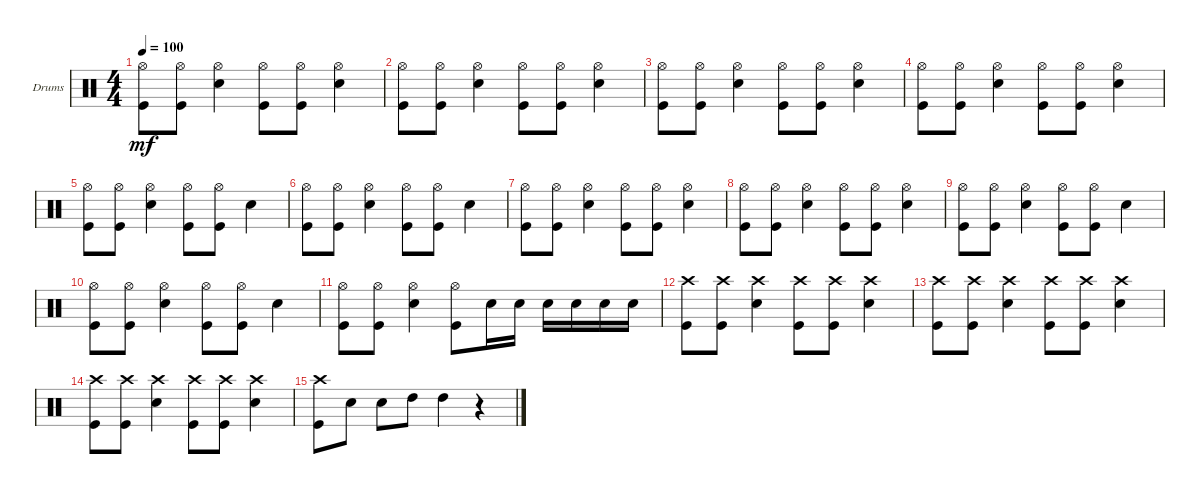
\defaultSystemsLayout 4
\bracketExtendMode groupsimilarinstruments
\firstSystemTrackNameOrientation horizontal
\otherSystemsTrackNameOrientation horizontal
\track ("Drumkit" "Drums") {instrument percussion}
\staff {score}
\articulation defaults
\ts (4 4)
\tempo 100
\clef neutral
\ks c
("Kick (hit)" "Hi-Hat (open)").8{dy mf} ("Kick (hit)" "Hi-Hat (open)").8 ("Snare (hit) 2" "Hi-Hat (open)").4 ("Kick (hit)" "Hi-Hat (open)").8 ("Kick (hit)" "Hi-Hat (open)").8 ("Snare (hit) 2" "Hi-Hat (open)").4 |
("Kick (hit)" "Hi-Hat (open)").8 ("Kick (hit)" "Hi-Hat (open)").8 ("Snare (hit) 2" "Hi-Hat (open)").4 ("Kick (hit)" "Hi-Hat (open)").8 ("Kick (hit)" "Hi-Hat (open)").8 ("Snare (hit) 2" "Hi-Hat (open)").4 |
("Kick (hit)" "Hi-Hat (open)").8 ("Kick (hit)" "Hi-Hat (open)").8 ("Snare (hit) 2" "Hi-Hat (open)").4 ("Kick (hit)" "Hi-Hat (open)").8 ("Kick (hit)" "Hi-Hat (open)").8 ("Snare (hit) 2" "Hi-Hat (open)").4 |
("Kick (hit)" "Hi-Hat (open)").8 ("Kick (hit)" "Hi-Hat (open)").8 ("Snare (hit) 2" "Hi-Hat (open)").4 ("Kick (hit)" "Hi-Hat (open)").8 ("Kick (hit)" "Hi-Hat (open)").8 ("Snare (hit) 2" "Hi-Hat (open)").4 |
("Kick (hit)" "Hi-Hat (open)").8 ("Kick (hit)" "Hi-Hat (open)").8 ("Snare (hit) 2" "Hi-Hat (open)").4 ("Kick (hit)" "Hi-Hat (open)").8 ("Kick (hit)" "Hi-Hat (open)").8 "Snare (hit) 2".4 |
("Kick (hit)" "Hi-Hat (open)").8 ("Kick (hit)" "Hi-Hat (open)").8 ("Snare (hit) 2" "Hi-Hat (open)").4 ("Kick (hit)" "Hi-Hat (open)").8 ("Kick (hit)" "Hi-Hat (open)").8 "Snare (hit) 2".4 |
("Kick (hit)" "Hi-Hat (open)").8 ("Kick (hit)" "Hi-Hat (open)").8 ("Snare (hit) 2" "Hi-Hat (open)").4 ("Kick (hit)" "Hi-Hat (open)").8 ("Kick (hit)" "Hi-Hat (open)").8 ("Snare (hit) 2" "Hi-Hat (open)").4 |
("Kick (hit)" "Hi-Hat (open)").8 ("Kick (hit)" "Hi-Hat (open)").8 ("Snare (hit) 2" "Hi-Hat (open)").4 ("Kick (hit)" "Hi-Hat (open)").8 ("Kick (hit)" "Hi-Hat (open)").8 ("Snare (hit) 2" "Hi-Hat (open)").4 |
("Kick (hit)" "Hi-Hat (open)").8 ("Kick (hit)" "Hi-Hat (open)").8 ("Snare (hit) 2" "Hi-Hat (open)").4 ("Kick (hit)" "Hi-Hat (open)").8 ("Kick (hit)" "Hi-Hat (open)").8 "Snare (hit) 2".4 |
("Kick (hit)" "Hi-Hat (open)").8 ("Kick (hit)" "Hi-Hat (open)").8 ("Snare (hit) 2" "Hi-Hat (open)").4 ("Kick (hit)" "Hi-Hat (open)").8 ("Kick (hit)" "Hi-Hat (open)").8 "Snare (hit) 2".4 |
("Kick (hit)" "Hi-Hat (open)").8 ("Kick (hit)" "Hi-Hat (open)").8 ("Snare (hit) 2" "Hi-Hat (open)").4 ("Kick (hit)" "Hi-Hat (open)").8 "Snare (hit) 2".16 "Snare (hit) 2".16 "Snare (hit) 2".16 "Snare (hit) 2".16 "Snare (hit) 2".16 "Snare (hit) 2".16 |
("Kick (hit)" "Crash high (hit)").8 ("Kick (hit)" "Crash high (hit)").8 ("Snare (hit) 2" "Crash high (hit)").4 ("Kick (hit)" "Crash high (hit)").8 ("Kick (hit)" "Crash high (hit)").8 ("Snare (hit) 2" "Crash high (hit)").4 |
("Kick (hit)" "Crash high (hit)").8 ("Kick (hit)" "Crash high (hit)").8 ("Snare (hit) 2" "Crash high (hit)").4 ("Kick (hit)" "Crash high (hit)").8 ("Kick (hit)" "Crash high (hit)").8 ("Snare (hit) 2" "Crash high (hit)").4 |
("Kick (hit)" "Crash high (hit)").8 ("Kick (hit)" "Crash high (hit)").8 ("Snare (hit) 2" "Crash high (hit)").4 ("Kick (hit)" "Crash high (hit)").8 ("Kick (hit)" "Crash high (hit)").8 ("Snare (hit) 2" "Crash high (hit)").4 |
("Crash high (hit)" "Kick (hit)").8 "Snare (hit) 2".8 "Snare (hit) 2".8 "High Tom (hit)".8 "High Tom (hit)".4 r.4
